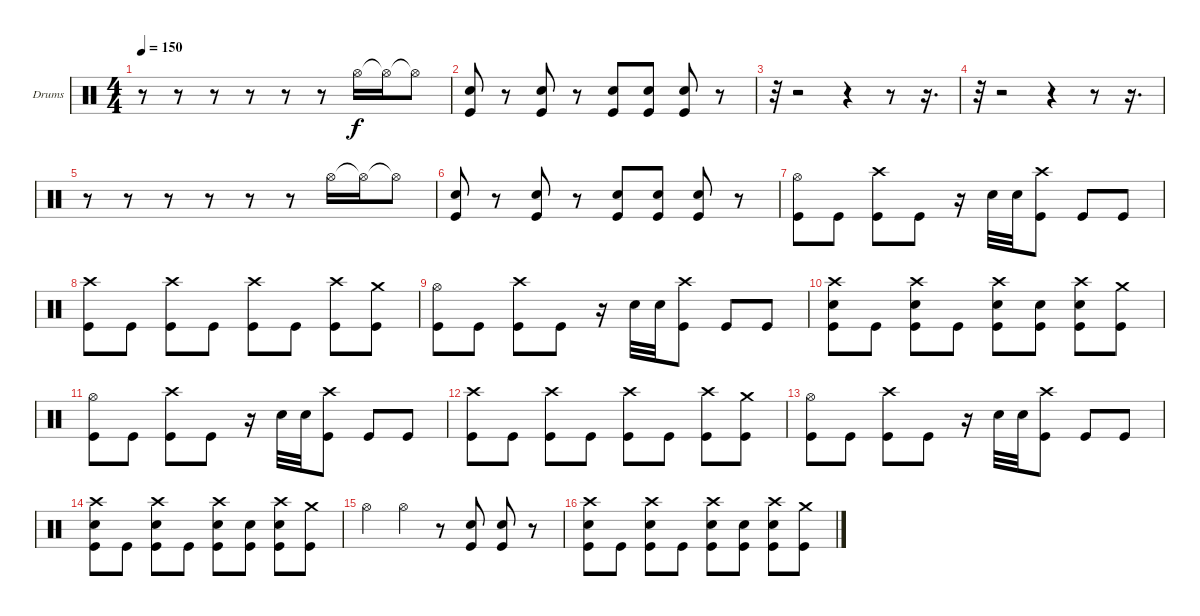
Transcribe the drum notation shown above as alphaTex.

\bracketExtendMode groupsimilarinstruments
\firstSystemTrackNameOrientation horizontal
\otherSystemsTrackNameOrientation horizontal
\track ("Drumkit" "Drums") {instrument percussion}
\staff {score}
\articulation defaults
\ts (4 4)
\tempo 150
\clef neutral
\ks c
r.8{dy f} r.8 r.8 r.8 r.8 r.8 "Hi-Hat (open)".16 "Hi-Hat (open)"{t}.16 "Hi-Hat (open)"{t}.8 |
("Snare (hit) 2" "Kick (hit)").8 r.8 ("Snare (hit) 2" "Kick (hit)").8 r.8 ("Snare (hit) 2" "Kick (hit)").8 ("Snare (hit) 2" "Kick (hit)").8 ("Snare (hit) 2" "Kick (hit)").8 r.8 |
r.32 r.2 r.4 r.8 r.16{d} |
r.32 r.2 r.4 r.8 r.16{d} |
r.8 r.8 r.8 r.8 r.8 r.8 "Hi-Hat (open)".16 "Hi-Hat (open)"{t}.16 "Hi-Hat (open)"{t}.8 |
("Snare (hit) 2" "Kick (hit)").8 r.8 ("Snare (hit) 2" "Kick (hit)").8 r.8 ("Snare (hit) 2" "Kick (hit)").8 ("Snare (hit) 2" "Kick (hit)").8 ("Snare (hit) 2" "Kick (hit)").8 r.8 |
("Hi-Hat (open)" "Kick (hit)").8 "Kick (hit)".8 ("Crash high (hit)" "Kick (hit)").8 "Kick (hit)".8 r.16 "Snare (hit) 2".32 "Snare (hit) 2".32 ("Crash high (hit)" "Kick (hit)").8 "Kick (hit)".8 "Kick (hit)".8 |
("Crash high (hit)" "Kick (hit)").8 "Kick (hit)".8 ("Crash high (hit)" "Kick (hit)").8 "Kick (hit)".8 ("Crash high (hit)" "Kick (hit)").8 "Kick (hit)".8 ("Crash high (hit)" "Kick (hit)").8 ("Crash medium (hit)" "Kick (hit)").8 |
("Hi-Hat (open)" "Kick (hit)").8 "Kick (hit)".8 ("Crash high (hit)" "Kick (hit)").8 "Kick (hit)".8 r.16 "Snare (hit) 2".32 "Snare (hit) 2".32 ("Crash high (hit)" "Kick (hit)").8 "Kick (hit)".8 "Kick (hit)".8 |
("Crash high (hit)" "Snare (hit) 2" "Kick (hit)").8 "Kick (hit)".8 ("Crash high (hit)" "Snare (hit) 2" "Kick (hit)").8 "Kick (hit)".8 ("Crash high (hit)" "Snare (hit) 2" "Kick (hit)").8 ("Snare (hit) 2" "Kick (hit)").8 ("Crash high (hit)" "Snare (hit) 2" "Kick (hit)").8 ("Crash medium (hit)" "Kick (hit)").8 |
("Hi-Hat (open)" "Kick (hit)").8 "Kick (hit)".8 ("Crash high (hit)" "Kick (hit)").8 "Kick (hit)".8 r.16 "Snare (hit) 2".32 "Snare (hit) 2".32 ("Crash high (hit)" "Kick (hit)").8 "Kick (hit)".8 "Kick (hit)".8 |
("Crash high (hit)" "Kick (hit)").8 "Kick (hit)".8 ("Crash high (hit)" "Kick (hit)").8 "Kick (hit)".8 ("Crash high (hit)" "Kick (hit)").8 "Kick (hit)".8 ("Crash high (hit)" "Kick (hit)").8 ("Crash medium (hit)" "Kick (hit)").8 |
("Hi-Hat (open)" "Kick (hit)").8 "Kick (hit)".8 ("Crash high (hit)" "Kick (hit)").8 "Kick (hit)".8 r.16 "Snare (hit) 2".32 "Snare (hit) 2".32 ("Crash high (hit)" "Kick (hit)").8 "Kick (hit)".8 "Kick (hit)".8 |
("Crash high (hit)" "Snare (hit) 2" "Kick (hit)").8 "Kick (hit)".8 ("Crash high (hit)" "Snare (hit) 2" "Kick (hit)").8 "Kick (hit)".8 ("Crash high (hit)" "Snare (hit) 2" "Kick (hit)").8 ("Snare (hit) 2" "Kick (hit)").8 ("Crash high (hit)" "Snare (hit) 2" "Kick (hit)").8 ("Crash medium (hit)" "Kick (hit)").8 |
"Hi-Hat (open)".4 "Hi-Hat (open)".4 r.8 ("Snare (hit) 2" "Kick (hit)").8 ("Snare (hit) 2" "Kick (hit)").8 r.8 |
("Crash high (hit)" "Snare (hit) 2" "Kick (hit)").8 "Kick (hit)".8 ("Crash high (hit)" "Snare (hit) 2" "Kick (hit)").8 "Kick (hit)".8 ("Crash high (hit)" "Snare (hit) 2" "Kick (hit)").8 ("Snare (hit) 2" "Kick (hit)").8 ("Crash high (hit)" "Snare (hit) 2" "Kick (hit)").8 ("Crash medium (hit)" "Kick (hit)").8
